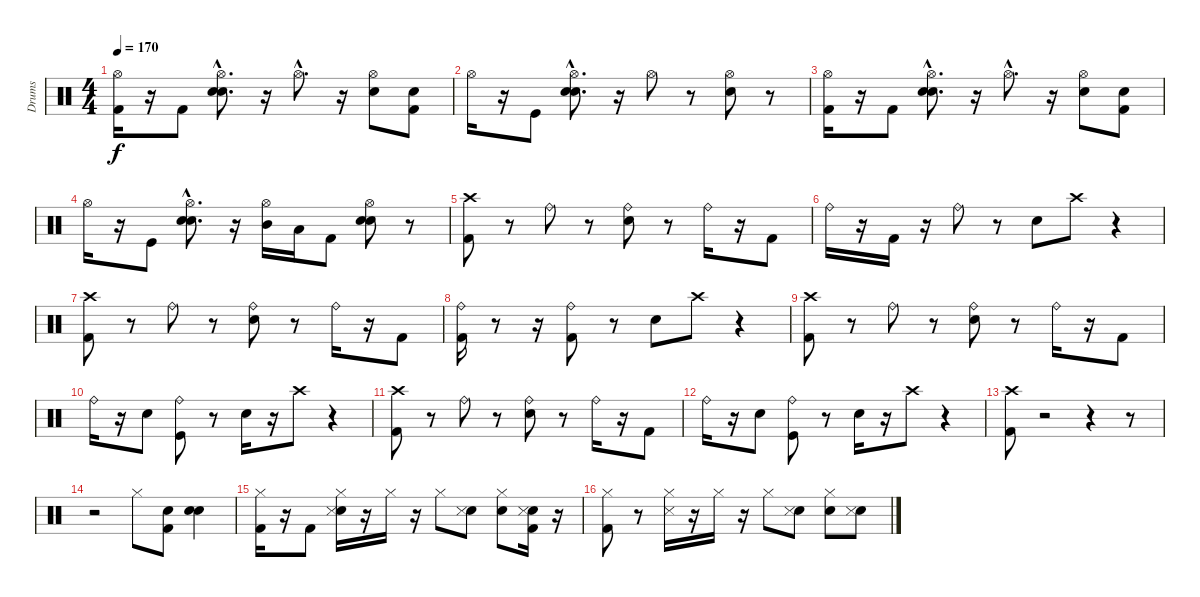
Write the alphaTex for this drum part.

\track ("Drums" "Drums") {instrument percussion}
\staff {score}
\articulation defaults
\ts (4 4)
\tempo 170
\clef neutral
\ks c
("Kick (hit) 2" "Hi-Hat (open)").16{dy f} r.16 "Kick (hit) 2".8 ("Snare (hit)"{hac} "Electric Snare (hit)"{hac} "Hi-Hat (open)"{hac}).8{d} r.16 "Hi-Hat (open)"{hac}.8{d} r.16 ("Electric Snare (hit)" "Hi-Hat (open)").8 ("Snare (hit)" "Kick (hit) 2").8 |
"Hi-Hat (open)".16 r.16 "Kick (hit)".8 ("Snare (hit)"{hac} "Electric Snare (hit)"{hac} "Hi-Hat (open)"{hac}).8{d} r.16 "Hi-Hat (open)".8 r.8 ("Electric Snare (hit)" "Hi-Hat (open)").8 r.8 |
("Kick (hit) 2" "Hi-Hat (open)").16 r.16 "Kick (hit) 2".8 ("Snare (hit)"{hac} "Electric Snare (hit)"{hac} "Hi-Hat (open)"{hac}).8{d} r.16 "Hi-Hat (open)"{hac}.8{d} r.16 ("Electric Snare (hit)" "Hi-Hat (open)").8 ("Snare (hit)" "Kick (hit) 2").8 |
"Hi-Hat (open)".16 r.16 "Kick (hit)".8 ("Snare (hit)"{hac} "Electric Snare (hit)"{hac} "Hi-Hat (open)"{hac}).8{d} r.16 ("Hi-Hat (open)" "Mid Tom (hit)").16 "Low Tom (hit)".16 "Kick (hit) 2".8 ("Snare (hit)" "Electric Snare (hit)" "Hi-Hat (open)").8 r.8 |
("Kick (hit) 2" "Crash high (hit)").8 r.8 "Ride (bell)".8 r.8 ("Electric Snare (hit)" "Ride (bell)").8 r.8 "Ride (bell)".16 r.16 "Kick (hit) 2".8 |
"Ride (bell)".16 r.16 "Kick (hit) 2".16 r.16 "Ride (bell)".8 r.8 "Electric Snare (hit)".8 "Crash high (hit)".8 r.4 |
("Kick (hit) 2" "Crash high (hit)").8 r.8 "Ride (bell)".8 r.8 ("Electric Snare (hit)" "Ride (bell)").8 r.8 "Ride (bell)".16 r.16 "Kick (hit) 2".8 |
("Kick (hit) 2" "Ride (bell)").16 r.8 r.16 ("Kick (hit) 2" "Ride (bell)").8 r.8 "Electric Snare (hit)".8 "Crash high (hit)".8 r.4 |
("Kick (hit) 2" "Crash high (hit)").8 r.8 "Ride (bell)".8 r.8 ("Electric Snare (hit)" "Ride (bell)").8 r.8 "Ride (bell)".16 r.16 "Kick (hit) 2".8 |
"Ride (bell)".16 r.16 "Electric Snare (hit)".8 ("Kick (hit)" "Ride (bell)").8 r.8 "Electric Snare (hit)".16 r.16 "Crash high (hit)".8 r.4 |
("Kick (hit) 2" "Crash high (hit)").8 r.8 "Ride (bell)".8 r.8 ("Electric Snare (hit)" "Ride (bell)").8 r.8 "Ride (bell)".16 r.16 "Kick (hit) 2".8 |
"Ride (bell)".16 r.16 "Electric Snare (hit)".8 ("Kick (hit)" "Ride (bell)").8 r.8 "Electric Snare (hit)".16 r.16 "Crash high (hit)".8 r.4 |
("Kick (hit) 2" "Crash high (hit)").8 r.2 r.4 r.8 |
r.2 "Hi-Hat (closed)".8 ("Snare (hit)" "Kick (hit) 2").8 ("Snare (hit)" "Electric Snare (hit)").4 |
("Kick (hit) 2" "Hi-Hat (closed)").16 r.16 "Kick (hit) 2".8 ("Snare (hit)" "Snare (side stick) 3" "Hi-Hat (closed)").16 r.16 "Hi-Hat (closed)".16 r.16 "Hi-Hat (closed)".8 ("Snare (hit)" "Snare (side stick) 3").8 ("Snare (hit)" "Hi-Hat (closed)").8 ("Snare (hit)" "Kick (hit) 2" "Snare (side stick) 3").16 r.16 |
("Kick (hit) 2" "Hi-Hat (closed)").8 r.8 ("Snare (side stick) 3" "Hi-Hat (closed)").16 r.16 "Hi-Hat (closed)".16 r.16 "Hi-Hat (closed)".8 ("Snare (hit)" "Snare (side stick) 3").8 ("Snare (hit)" "Hi-Hat (closed)").8 ("Snare (hit)" "Snare (side stick) 3").8
